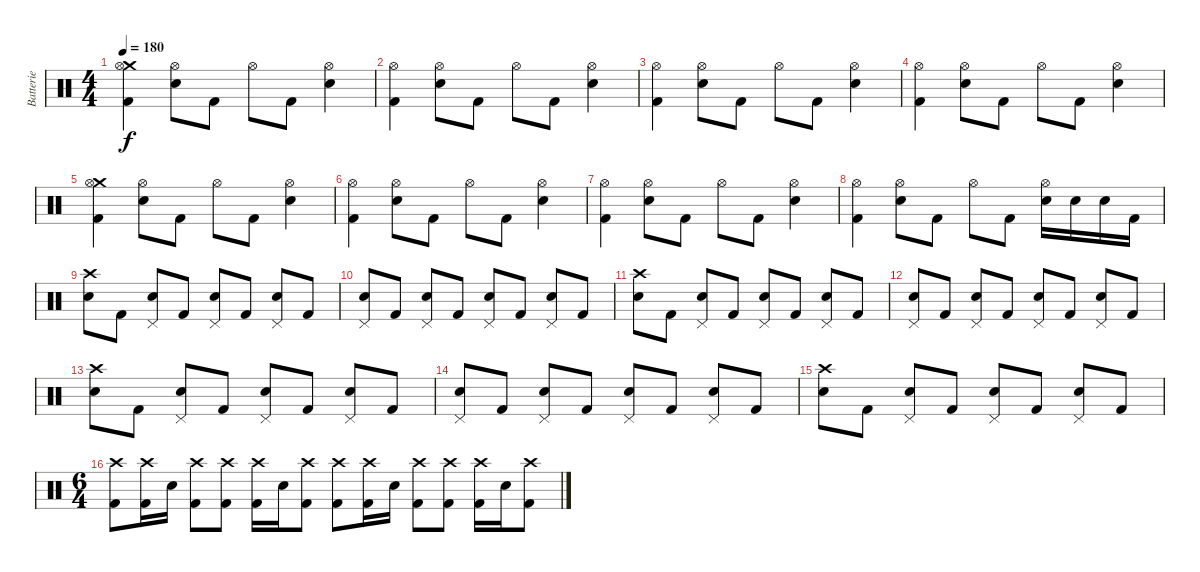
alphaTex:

\track ("Batterie" "Batterie") {instrument percussion}
\staff {score}
\articulation defaults
\ts (4 4)
\tempo 180
\clef neutral
\ks c
("Crash medium (hit)" "Hi-Hat (open)" "Kick (hit) 2").4{dy f} ("Hi-Hat (open)" "Electric Snare (hit)").8 "Kick (hit) 2".8 "Hi-Hat (open)".8 "Kick (hit) 2".8 ("Hi-Hat (open)" "Electric Snare (hit)").4 |
("Hi-Hat (open)" "Kick (hit) 2").4 ("Hi-Hat (open)" "Electric Snare (hit)").8 "Kick (hit) 2".8 "Hi-Hat (open)".8 "Kick (hit) 2".8 ("Hi-Hat (open)" "Electric Snare (hit)").4 |
("Hi-Hat (open)" "Kick (hit) 2").4 ("Hi-Hat (open)" "Electric Snare (hit)").8 "Kick (hit) 2".8 "Hi-Hat (open)".8 "Kick (hit) 2".8 ("Hi-Hat (open)" "Electric Snare (hit)").4 |
("Hi-Hat (open)" "Kick (hit) 2").4 ("Hi-Hat (open)" "Electric Snare (hit)").8 "Kick (hit) 2".8 "Hi-Hat (open)".8 "Kick (hit) 2".8 ("Hi-Hat (open)" "Electric Snare (hit)").4 |
("Crash medium (hit)" "Hi-Hat (open)" "Kick (hit) 2").4 ("Hi-Hat (open)" "Electric Snare (hit)").8 "Kick (hit) 2".8 "Hi-Hat (open)".8 "Kick (hit) 2".8 ("Hi-Hat (open)" "Electric Snare (hit)").4 |
("Hi-Hat (open)" "Kick (hit) 2").4 ("Hi-Hat (open)" "Electric Snare (hit)").8 "Kick (hit) 2".8 "Hi-Hat (open)".8 "Kick (hit) 2".8 ("Hi-Hat (open)" "Electric Snare (hit)").4 |
("Hi-Hat (open)" "Kick (hit) 2").4 ("Hi-Hat (open)" "Electric Snare (hit)").8 "Kick (hit) 2".8 "Hi-Hat (open)".8 "Kick (hit) 2".8 ("Hi-Hat (open)" "Electric Snare (hit)").4 |
("Hi-Hat (open)" "Kick (hit) 2").4 ("Hi-Hat (open)" "Electric Snare (hit)").8 "Kick (hit) 2".8 "Hi-Hat (open)".8 "Kick (hit) 2".8 ("Hi-Hat (open)" "Electric Snare (hit)").16 "Electric Snare (hit)".16 "Electric Snare (hit)".16 "Kick (hit) 2".16 |
("Crash high (hit)" "Electric Snare (hit)").8 "Kick (hit) 2".8 ("Pedal Hi-Hat (hit)" "Electric Snare (hit)").8 "Kick (hit) 2".8 ("Pedal Hi-Hat (hit)" "Electric Snare (hit)").8 "Kick (hit) 2".8 ("Pedal Hi-Hat (hit)" "Electric Snare (hit)").8 "Kick (hit) 2".8 |
("Pedal Hi-Hat (hit)" "Electric Snare (hit)").8 "Kick (hit) 2".8 ("Pedal Hi-Hat (hit)" "Electric Snare (hit)").8 "Kick (hit) 2".8 ("Pedal Hi-Hat (hit)" "Electric Snare (hit)").8 "Kick (hit) 2".8 ("Pedal Hi-Hat (hit)" "Electric Snare (hit)").8 "Kick (hit) 2".8 |
("Crash high (hit)" "Electric Snare (hit)").8 "Kick (hit) 2".8 ("Pedal Hi-Hat (hit)" "Electric Snare (hit)").8 "Kick (hit) 2".8 ("Pedal Hi-Hat (hit)" "Electric Snare (hit)").8 "Kick (hit) 2".8 ("Pedal Hi-Hat (hit)" "Electric Snare (hit)").8 "Kick (hit) 2".8 |
("Pedal Hi-Hat (hit)" "Electric Snare (hit)").8 "Kick (hit) 2".8 ("Pedal Hi-Hat (hit)" "Electric Snare (hit)").8 "Kick (hit) 2".8 ("Pedal Hi-Hat (hit)" "Electric Snare (hit)").8 "Kick (hit) 2".8 ("Pedal Hi-Hat (hit)" "Electric Snare (hit)").8 "Kick (hit) 2".8 |
("Crash high (hit)" "Electric Snare (hit)").8 "Kick (hit) 2".8 ("Pedal Hi-Hat (hit)" "Electric Snare (hit)").8 "Kick (hit) 2".8 ("Pedal Hi-Hat (hit)" "Electric Snare (hit)").8 "Kick (hit) 2".8 ("Pedal Hi-Hat (hit)" "Electric Snare (hit)").8 "Kick (hit) 2".8 |
("Pedal Hi-Hat (hit)" "Electric Snare (hit)").8 "Kick (hit) 2".8 ("Pedal Hi-Hat (hit)" "Electric Snare (hit)").8 "Kick (hit) 2".8 ("Pedal Hi-Hat (hit)" "Electric Snare (hit)").8 "Kick (hit) 2".8 ("Pedal Hi-Hat (hit)" "Electric Snare (hit)").8 "Kick (hit) 2".8 |
("Crash high (hit)" "Electric Snare (hit)").8 "Kick (hit) 2".8 ("Pedal Hi-Hat (hit)" "Electric Snare (hit)").8 "Kick (hit) 2".8 ("Pedal Hi-Hat (hit)" "Electric Snare (hit)").8 "Kick (hit) 2".8 ("Pedal Hi-Hat (hit)" "Electric Snare (hit)").8 "Kick (hit) 2".8 |
\ts (6 4)
("Crash high (hit)" "Kick (hit) 2").8 ("Crash high (hit)" "Kick (hit) 2").16 "Electric Snare (hit)".16 ("Crash high (hit)" "Kick (hit) 2").8 ("Crash high (hit)" "Kick (hit) 2").8 ("Crash high (hit)" "Kick (hit) 2").16 "Electric Snare (hit)".16 ("Crash high (hit)" "Kick (hit) 2").8 ("Crash high (hit)" "Kick (hit) 2").8 ("Crash high (hit)" "Kick (hit) 2").16 "Electric Snare (hit)".16 ("Crash high (hit)" "Kick (hit) 2").8 ("Crash high (hit)" "Kick (hit) 2").8 ("Crash high (hit)" "Kick (hit) 2").16 "Electric Snare (hit)".16 ("Crash high (hit)" "Kick (hit) 2").8
